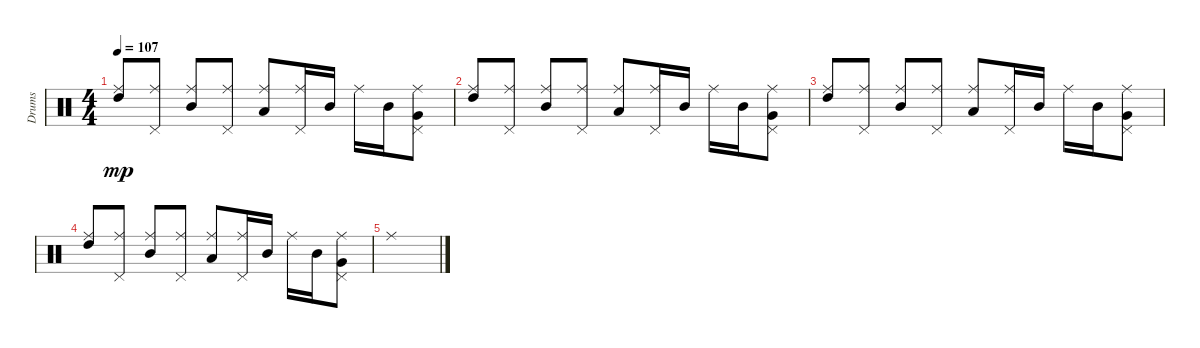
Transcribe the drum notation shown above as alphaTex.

\track ("Drums" "Drums") {instrument percussion}
\staff {score}
\articulation defaults
\ts (4 4)
\tempo 107
\clef neutral
\ks c
("Ride (middle)" "High Tom (hit)").8{dy mp} ("Pedal Hi-Hat (hit)" "Ride (middle)").8 ("Ride (middle)" "Mid Tom (hit)").8 ("Pedal Hi-Hat (hit)" "Ride (middle)").8 ("Ride (middle)" "Low Tom (hit)").8 ("Pedal Hi-Hat (hit)" "Ride (middle)").16 "Mid Tom (hit)".16 "Ride (middle)".16 "Mid Tom (hit)".16 ("Pedal Hi-Hat (hit)" "Ride (middle)" "Very Low Tom (hit)").8 |
("Ride (middle)" "High Tom (hit)").8 ("Pedal Hi-Hat (hit)" "Ride (middle)").8 ("Ride (middle)" "Mid Tom (hit)").8 ("Pedal Hi-Hat (hit)" "Ride (middle)").8 ("Ride (middle)" "Low Tom (hit)").8 ("Pedal Hi-Hat (hit)" "Ride (middle)").16 "Mid Tom (hit)".16 "Ride (middle)".16 "Mid Tom (hit)".16 ("Pedal Hi-Hat (hit)" "Ride (middle)" "Very Low Tom (hit)").8 |
("Ride (middle)" "High Tom (hit)").8{volume 4} ("Pedal Hi-Hat (hit)" "Ride (middle)").8 ("Ride (middle)" "Mid Tom (hit)").8 ("Pedal Hi-Hat (hit)" "Ride (middle)").8 ("Ride (middle)" "Low Tom (hit)").8 ("Pedal Hi-Hat (hit)" "Ride (middle)").16 "Mid Tom (hit)".16 "Ride (middle)".16 "Mid Tom (hit)".16 ("Pedal Hi-Hat (hit)" "Ride (middle)" "Very Low Tom (hit)").8 |
("Ride (middle)" "High Tom (hit)").8 ("Pedal Hi-Hat (hit)" "Ride (middle)").8 ("Ride (middle)" "Mid Tom (hit)").8 ("Pedal Hi-Hat (hit)" "Ride (middle)").8 ("Ride (middle)" "Low Tom (hit)").8 ("Pedal Hi-Hat (hit)" "Ride (middle)").16 "Mid Tom (hit)".16 "Ride (middle)".16 "Mid Tom (hit)".16 ("Pedal Hi-Hat (hit)" "Ride (middle)" "Very Low Tom (hit)").8 |
"Ride (middle)".1
